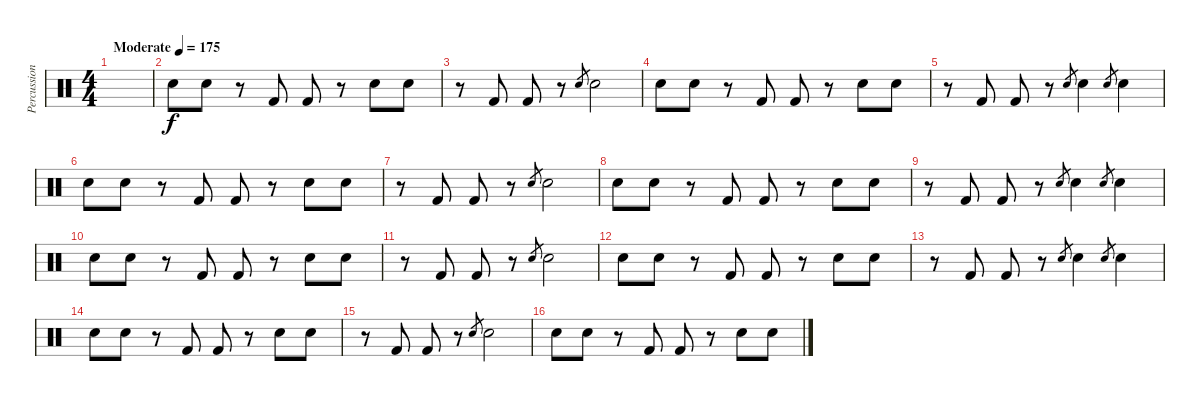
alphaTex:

\track ("Percussion" "Percussion") {instrument percussion}
\staff {score}
\articulation defaults
\ts (4 4)
\tempo (175 "Moderate")
\clef neutral
\ks c
|
"Electric Snare (hit)".8 "Electric Snare (hit)".8 r.8 "Kick (hit) 2".8 "Kick (hit) 2".8 r.8 "Electric Snare (hit)".8 "Electric Snare (hit)".8 |
r.8 "Kick (hit) 2".8 "Kick (hit) 2".8 r.8 "Electric Snare (hit)".8{gr} "Electric Snare (hit)".2 |
"Electric Snare (hit)".8 "Electric Snare (hit)".8 r.8 "Kick (hit) 2".8 "Kick (hit) 2".8 r.8 "Electric Snare (hit)".8 "Electric Snare (hit)".8 |
r.8 "Kick (hit) 2".8 "Kick (hit) 2".8 r.8 "Electric Snare (hit)".8{gr} "Electric Snare (hit)".4 "Electric Snare (hit)".8{gr} "Electric Snare (hit)".4 |
"Electric Snare (hit)".8 "Electric Snare (hit)".8 r.8 "Kick (hit) 2".8 "Kick (hit) 2".8 r.8 "Electric Snare (hit)".8 "Electric Snare (hit)".8 |
r.8 "Kick (hit) 2".8 "Kick (hit) 2".8 r.8 "Electric Snare (hit)".8{gr} "Electric Snare (hit)".2 |
"Electric Snare (hit)".8 "Electric Snare (hit)".8 r.8 "Kick (hit) 2".8 "Kick (hit) 2".8 r.8 "Electric Snare (hit)".8 "Electric Snare (hit)".8 |
r.8 "Kick (hit) 2".8 "Kick (hit) 2".8 r.8 "Electric Snare (hit)".8{gr} "Electric Snare (hit)".4 "Electric Snare (hit)".8{gr} "Electric Snare (hit)".4 |
"Electric Snare (hit)".8 "Electric Snare (hit)".8 r.8 "Kick (hit) 2".8 "Kick (hit) 2".8 r.8 "Electric Snare (hit)".8 "Electric Snare (hit)".8 |
r.8 "Kick (hit) 2".8 "Kick (hit) 2".8 r.8 "Electric Snare (hit)".8{gr} "Electric Snare (hit)".2 |
"Electric Snare (hit)".8 "Electric Snare (hit)".8 r.8 "Kick (hit) 2".8 "Kick (hit) 2".8 r.8 "Electric Snare (hit)".8 "Electric Snare (hit)".8 |
r.8 "Kick (hit) 2".8 "Kick (hit) 2".8 r.8 "Electric Snare (hit)".8{gr} "Electric Snare (hit)".4 "Electric Snare (hit)".8{gr} "Electric Snare (hit)".4 |
"Electric Snare (hit)".8 "Electric Snare (hit)".8 r.8 "Kick (hit) 2".8 "Kick (hit) 2".8 r.8 "Electric Snare (hit)".8 "Electric Snare (hit)".8 |
r.8 "Kick (hit) 2".8 "Kick (hit) 2".8 r.8 "Electric Snare (hit)".8{gr} "Electric Snare (hit)".2 |
"Electric Snare (hit)".8 "Electric Snare (hit)".8 r.8 "Kick (hit) 2".8 "Kick (hit) 2".8 r.8 "Electric Snare (hit)".8 "Electric Snare (hit)".8
